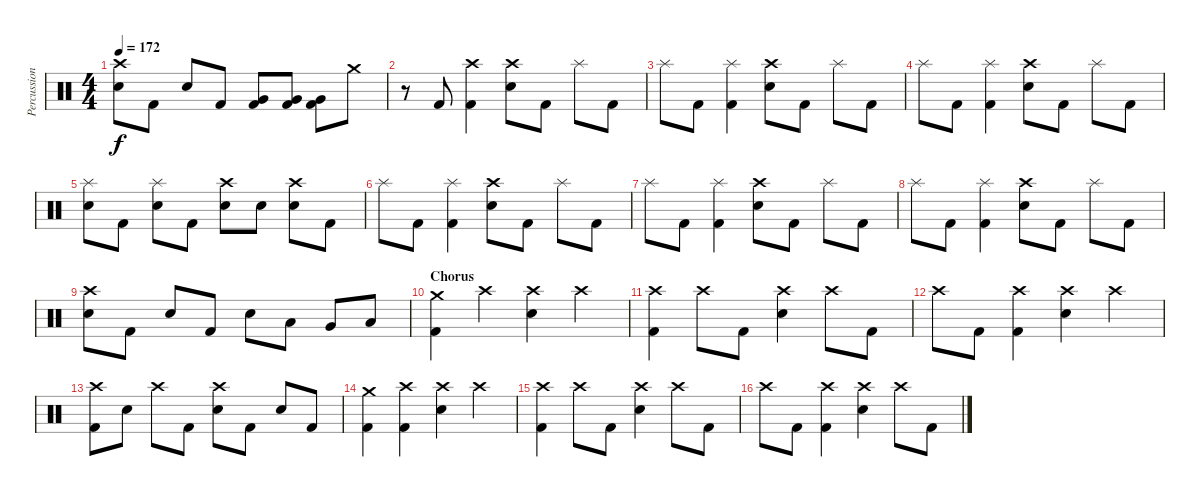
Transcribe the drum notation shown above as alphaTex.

\track ("Percussion" "Percussion") {instrument percussion}
\staff {score}
\articulation defaults
\ts (4 4)
\tempo 172
\clef neutral
\ks c
("Crash high (hit)" "Electric Snare (hit)").8{dy f} "Kick (hit) 2".8 "Electric Snare (hit)".8 "Kick (hit) 2".8 ("Very Low Tom (hit)" "Kick (hit) 2").8 ("Very Low Tom (hit)" "Kick (hit) 2").8 ("Very Low Tom (hit)" "Kick (hit) 2").8 "Crash medium (hit)".8 |
r.8 "Kick (hit) 2".8 ("Crash high (hit)" "Kick (hit) 2").4 ("Crash high (hit)" "Electric Snare (hit)").8 "Kick (hit) 2".8 "Splash (hit)".8 "Kick (hit) 2".8 |
"Splash (hit)".8 "Kick (hit) 2".8 ("Splash (hit)" "Kick (hit) 2").4 ("Crash high (hit)" "Electric Snare (hit)").8 "Kick (hit) 2".8 "Splash (hit)".8 "Kick (hit) 2".8 |
"Splash (hit)".8 "Kick (hit) 2".8 ("Splash (hit)" "Kick (hit) 2").4 ("Crash high (hit)" "Electric Snare (hit)").8 "Kick (hit) 2".8 "Splash (hit)".8 "Kick (hit) 2".8 |
("Splash (hit)" "Electric Snare (hit)").8 "Kick (hit) 2".8 ("Splash (hit)" "Electric Snare (hit)").8 "Kick (hit) 2".8 ("Crash high (hit)" "Electric Snare (hit)").8 "Electric Snare (hit)".8 ("Crash high (hit)" "Electric Snare (hit)").8 "Kick (hit) 2".8 |
"Splash (hit)".8 "Kick (hit) 2".8 ("Splash (hit)" "Kick (hit) 2").4 ("Crash high (hit)" "Electric Snare (hit)").8 "Kick (hit) 2".8 "Splash (hit)".8 "Kick (hit) 2".8 |
"Splash (hit)".8 "Kick (hit) 2".8 ("Splash (hit)" "Kick (hit) 2").4 ("Crash high (hit)" "Electric Snare (hit)").8 "Kick (hit) 2".8 "Splash (hit)".8 "Kick (hit) 2".8 |
"Splash (hit)".8 "Kick (hit) 2".8 ("Splash (hit)" "Kick (hit) 2").4 ("Crash high (hit)" "Electric Snare (hit)").8 "Kick (hit) 2".8 "Splash (hit)".8 "Kick (hit) 2".8 |
("Crash high (hit)" "Electric Snare (hit)").8 "Kick (hit) 2".8 "Electric Snare (hit)".8 "Kick (hit) 2".8 "Electric Snare (hit)".8 "Low Tom (hit)".8 "Very Low Tom (hit)".8 "Low Floor Tom (hit)".8 |
\section ("" "Chorus")
("Crash medium (hit)" "Kick (hit) 2").4 "Crash high (hit)".4 ("Crash high (hit)" "Electric Snare (hit)").4 "Crash high (hit)".4 |
("Crash high (hit)" "Kick (hit) 2").4 "Crash high (hit)".8 "Kick (hit) 2".8 ("Crash high (hit)" "Electric Snare (hit)").4 "Crash high (hit)".8 "Kick (hit) 2".8 |
"Crash high (hit)".8 "Kick (hit) 2".8 ("Crash high (hit)" "Kick (hit) 2").4 ("Crash high (hit)" "Electric Snare (hit)").4 "Crash high (hit)".4 |
("Crash high (hit)" "Kick (hit) 2").8 "Electric Snare (hit)".8 "Crash high (hit)".8 "Kick (hit) 2".8 ("Crash high (hit)" "Electric Snare (hit)").8 "Kick (hit) 2".8 "Electric Snare (hit)".8 "Kick (hit) 2".8 |
("Crash medium (hit)" "Kick (hit) 2").4 ("Crash high (hit)" "Kick (hit) 2").4 ("Crash high (hit)" "Electric Snare (hit)").4 "Crash high (hit)".4 |
("Crash high (hit)" "Kick (hit) 2").4 "Crash high (hit)".8 "Kick (hit) 2".8 ("Crash high (hit)" "Electric Snare (hit)").4 "Crash high (hit)".8 "Kick (hit) 2".8 |
"Crash high (hit)".8 "Kick (hit) 2".8 ("Crash high (hit)" "Kick (hit) 2").4 ("Crash high (hit)" "Electric Snare (hit)").4 "Crash high (hit)".8 "Kick (hit) 2".8
